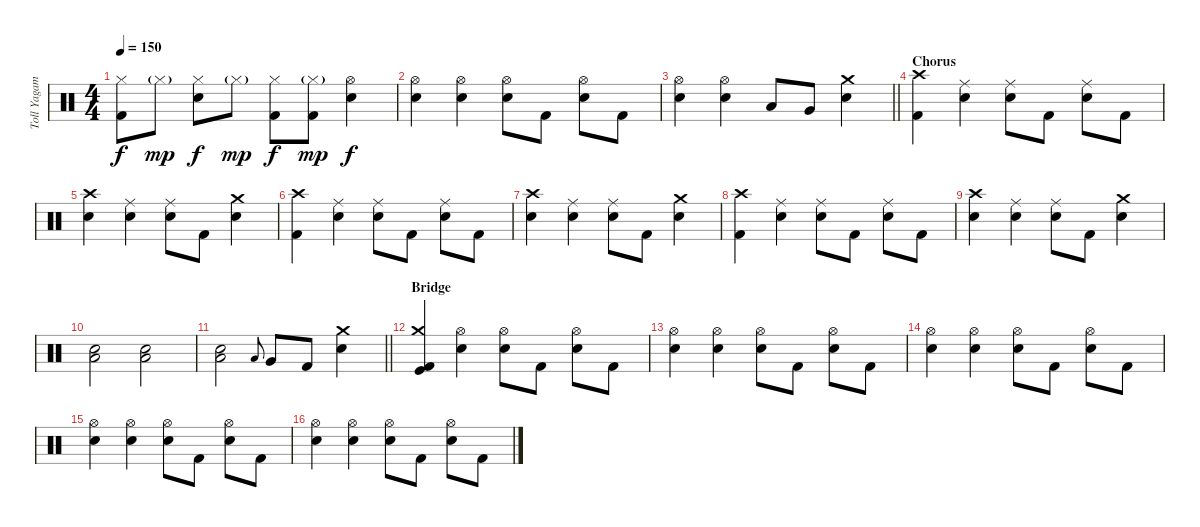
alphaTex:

\track ("Toll Yagami" "Toll Yagam") {instrument percussion}
\staff {score}
\articulation defaults
\ts (4 4)
\tempo 150
\clef neutral
\ks c
("Hi-Hat (closed)" "Kick (hit) 2").8{dy f} "Hi-Hat (closed)"{g}.8{dy mp} ("Hi-Hat (closed)" "Electric Snare (hit)").8{dy f} "Hi-Hat (closed)"{g}.8{dy mp} ("Hi-Hat (closed)" "Kick (hit) 2").8{dy f} ("Hi-Hat (closed)"{g} "Kick (hit) 2").8{dy mp} ("Hi-Hat (open)" "Electric Snare (hit)").4{dy f} |
("Hi-Hat (open)" "Electric Snare (hit)").4 ("Hi-Hat (open)" "Electric Snare (hit)").4 ("Hi-Hat (open)" "Electric Snare (hit)").8 "Kick (hit) 2".8 ("Hi-Hat (open)" "Electric Snare (hit)").8 "Kick (hit) 2".8 |
\barLineRight lightlight
("Hi-Hat (open)" "Electric Snare (hit)").4 ("Hi-Hat (open)" "Electric Snare (hit)").4 "Low Tom (hit)".8 "Very Low Tom (hit)".8 ("Crash medium (hit)" "Electric Snare (hit)").4 |
\section ("" "Chorus")
("Crash high (hit)" "Kick (hit) 2").4 ("Ride (middle)" "Electric Snare (hit)").4 ("Ride (middle)" "Electric Snare (hit)").8 "Kick (hit) 2".8 ("Ride (middle)" "Electric Snare (hit)").8 "Kick (hit) 2".8 |
("Crash high (hit)" "Electric Snare (hit)").4 ("Ride (middle)" "Electric Snare (hit)").4 ("Ride (middle)" "Electric Snare (hit)").8 "Kick (hit) 2".8 ("Crash medium (hit)" "Electric Snare (hit)").4 |
("Crash high (hit)" "Kick (hit) 2").4 ("Ride (middle)" "Electric Snare (hit)").4 ("Ride (middle)" "Electric Snare (hit)").8 "Kick (hit) 2".8 ("Ride (middle)" "Electric Snare (hit)").8 "Kick (hit) 2".8 |
("Crash high (hit)" "Electric Snare (hit)").4 ("Ride (middle)" "Electric Snare (hit)").4 ("Ride (middle)" "Electric Snare (hit)").8 "Kick (hit) 2".8 ("Crash medium (hit)" "Electric Snare (hit)").4 |
("Crash high (hit)" "Kick (hit) 2").4 ("Ride (middle)" "Electric Snare (hit)").4 ("Ride (middle)" "Electric Snare (hit)").8 "Kick (hit) 2".8 ("Ride (middle)" "Electric Snare (hit)").8 "Kick (hit) 2".8 |
("Crash high (hit)" "Electric Snare (hit)").4 ("Ride (middle)" "Electric Snare (hit)").4 ("Ride (middle)" "Electric Snare (hit)").8 "Kick (hit) 2".8 ("Crash medium (hit)" "Electric Snare (hit)").4 |
("Low Floor Tom (hit)" "Electric Snare (hit)").2 ("Low Floor Tom (hit)" "Electric Snare (hit)").2 |
\barLineRight lightlight
("Low Floor Tom (hit)" "Electric Snare (hit)").2 "Low Tom (hit)".8{gr onbeat} "Very Low Tom (hit)".8 "Kick (hit) 2".8 ("Crash medium (hit)" "Electric Snare (hit)").4 |
\section ("" "Bridge")
("Crash medium (hit)" "Kick (hit) 2" "Kick (hit)").4 ("Hi-Hat (open)" "Electric Snare (hit)").4 ("Hi-Hat (open)" "Electric Snare (hit)").8 "Kick (hit) 2".8 ("Hi-Hat (open)" "Electric Snare (hit)").8 "Kick (hit) 2".8 |
("Hi-Hat (open)" "Electric Snare (hit)").4 ("Hi-Hat (open)" "Electric Snare (hit)").4 ("Hi-Hat (open)" "Electric Snare (hit)").8 "Kick (hit) 2".8 ("Hi-Hat (open)" "Electric Snare (hit)").8 "Kick (hit) 2".8 |
("Hi-Hat (open)" "Electric Snare (hit)").4 ("Hi-Hat (open)" "Electric Snare (hit)").4 ("Hi-Hat (open)" "Electric Snare (hit)").8 "Kick (hit) 2".8 ("Hi-Hat (open)" "Electric Snare (hit)").8 "Kick (hit) 2".8 |
("Hi-Hat (open)" "Electric Snare (hit)").4 ("Hi-Hat (open)" "Electric Snare (hit)").4 ("Hi-Hat (open)" "Electric Snare (hit)").8 "Kick (hit) 2".8 ("Hi-Hat (open)" "Electric Snare (hit)").8 "Kick (hit) 2".8 |
("Hi-Hat (open)" "Electric Snare (hit)").4 ("Hi-Hat (open)" "Electric Snare (hit)").4 ("Hi-Hat (open)" "Electric Snare (hit)").8 "Kick (hit) 2".8 ("Hi-Hat (open)" "Electric Snare (hit)").8 "Kick (hit) 2".8
